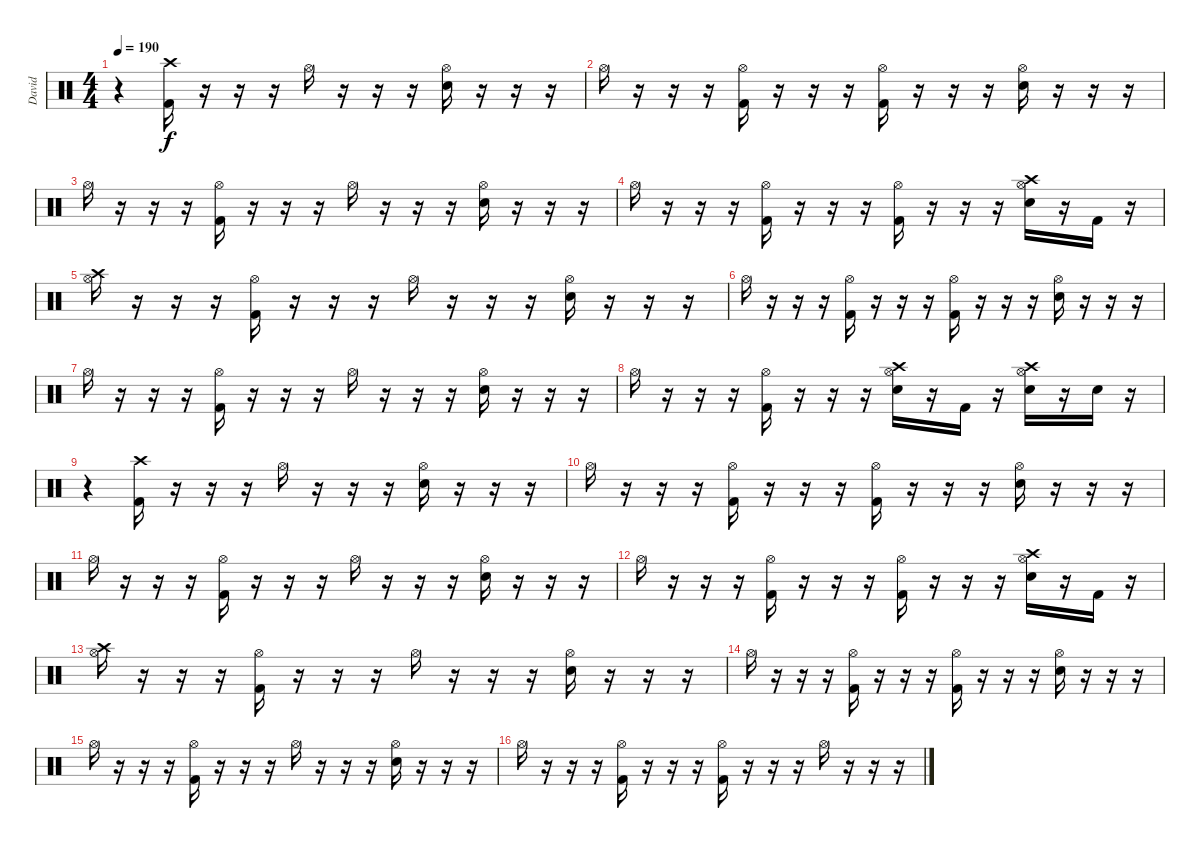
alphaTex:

\track ("David" "David") {instrument percussion}
\staff {score}
\articulation defaults
\ts (4 4)
\tempo 190
\clef neutral
\ks c
r.4{dy f} ("Crash high (hit)" "Kick (hit) 2").16 r.16 r.16 r.16 "Hi-Hat (open)".16 r.16 r.16 r.16 ("Hi-Hat (open)" "Electric Snare (hit)").16 r.16 r.16 r.16 |
"Hi-Hat (open)".16 r.16 r.16 r.16 ("Hi-Hat (open)" "Kick (hit) 2").16 r.16 r.16 r.16 ("Hi-Hat (open)" "Kick (hit) 2").16 r.16 r.16 r.16 ("Hi-Hat (open)" "Electric Snare (hit)").16 r.16 r.16 r.16 |
"Hi-Hat (open)".16 r.16 r.16 r.16 ("Hi-Hat (open)" "Kick (hit) 2").16 r.16 r.16 r.16 "Hi-Hat (open)".16 r.16 r.16 r.16 ("Hi-Hat (open)" "Electric Snare (hit)").16 r.16 r.16 r.16 |
"Hi-Hat (open)".16 r.16 r.16 r.16 ("Hi-Hat (open)" "Kick (hit) 2").16 r.16 r.16 r.16 ("Hi-Hat (open)" "Kick (hit) 2").16 r.16 r.16 r.16 ("Crash high (hit)" "Hi-Hat (open)" "Electric Snare (hit)").16 r.16 "Kick (hit) 2".16 r.16 |
("Crash high (hit)" "Hi-Hat (open)").16 r.16 r.16 r.16 ("Hi-Hat (open)" "Kick (hit) 2").16 r.16 r.16 r.16 "Hi-Hat (open)".16 r.16 r.16 r.16 ("Hi-Hat (open)" "Electric Snare (hit)").16 r.16 r.16 r.16 |
"Hi-Hat (open)".16 r.16 r.16 r.16 ("Hi-Hat (open)" "Kick (hit) 2").16 r.16 r.16 r.16 ("Hi-Hat (open)" "Kick (hit) 2").16 r.16 r.16 r.16 ("Hi-Hat (open)" "Electric Snare (hit)").16 r.16 r.16 r.16 |
"Hi-Hat (open)".16 r.16 r.16 r.16 ("Hi-Hat (open)" "Kick (hit) 2").16 r.16 r.16 r.16 "Hi-Hat (open)".16 r.16 r.16 r.16 ("Hi-Hat (open)" "Electric Snare (hit)").16 r.16 r.16 r.16 |
"Hi-Hat (open)".16 r.16 r.16 r.16 ("Hi-Hat (open)" "Kick (hit) 2").16 r.16 r.16 r.16 ("Crash high (hit)" "Hi-Hat (open)" "Electric Snare (hit)").16 r.16 "Kick (hit) 2".16 r.16 ("Crash high (hit)" "Hi-Hat (open)" "Electric Snare (hit)").16 r.16 "Electric Snare (hit)".16 r.16 |
r.4 ("Crash high (hit)" "Kick (hit) 2").16 r.16 r.16 r.16 "Hi-Hat (open)".16 r.16 r.16 r.16 ("Hi-Hat (open)" "Electric Snare (hit)").16 r.16 r.16 r.16 |
"Hi-Hat (open)".16 r.16 r.16 r.16 ("Hi-Hat (open)" "Kick (hit) 2").16 r.16 r.16 r.16 ("Hi-Hat (open)" "Kick (hit) 2").16 r.16 r.16 r.16 ("Hi-Hat (open)" "Electric Snare (hit)").16 r.16 r.16 r.16 |
"Hi-Hat (open)".16 r.16 r.16 r.16 ("Hi-Hat (open)" "Kick (hit) 2").16 r.16 r.16 r.16 "Hi-Hat (open)".16 r.16 r.16 r.16 ("Hi-Hat (open)" "Electric Snare (hit)").16 r.16 r.16 r.16 |
"Hi-Hat (open)".16 r.16 r.16 r.16 ("Hi-Hat (open)" "Kick (hit) 2").16 r.16 r.16 r.16 ("Hi-Hat (open)" "Kick (hit) 2").16 r.16 r.16 r.16 ("Crash high (hit)" "Hi-Hat (open)" "Electric Snare (hit)").16 r.16 "Kick (hit) 2".16 r.16 |
("Crash high (hit)" "Hi-Hat (open)").16 r.16 r.16 r.16 ("Hi-Hat (open)" "Kick (hit) 2").16 r.16 r.16 r.16 "Hi-Hat (open)".16 r.16 r.16 r.16 ("Hi-Hat (open)" "Electric Snare (hit)").16 r.16 r.16 r.16 |
"Hi-Hat (open)".16 r.16 r.16 r.16 ("Hi-Hat (open)" "Kick (hit) 2").16 r.16 r.16 r.16 ("Hi-Hat (open)" "Kick (hit) 2").16 r.16 r.16 r.16 ("Hi-Hat (open)" "Electric Snare (hit)").16 r.16 r.16 r.16 |
"Hi-Hat (open)".16 r.16 r.16 r.16 ("Hi-Hat (open)" "Kick (hit) 2").16 r.16 r.16 r.16 "Hi-Hat (open)".16 r.16 r.16 r.16 ("Hi-Hat (open)" "Electric Snare (hit)").16 r.16 r.16 r.16 |
"Hi-Hat (open)".16 r.16 r.16 r.16 ("Hi-Hat (open)" "Kick (hit) 2").16 r.16 r.16 r.16 ("Hi-Hat (open)" "Kick (hit) 2").16 r.16 r.16 r.16 "Hi-Hat (open)".16 r.16 r.16 r.16
